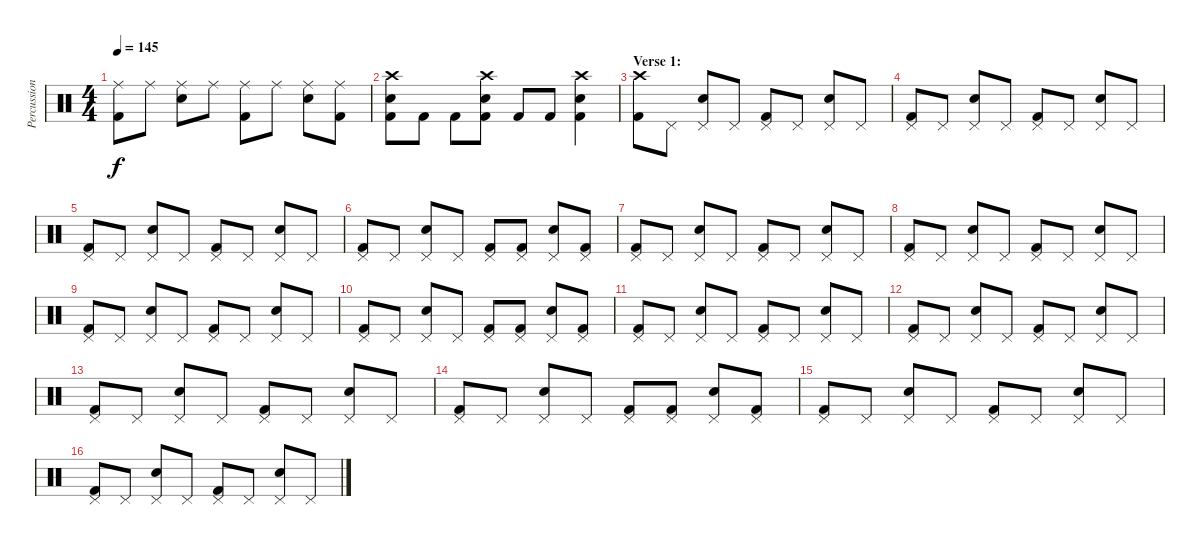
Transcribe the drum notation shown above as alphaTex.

\track ("Percussion" "Percussion") {instrument percussion}
\staff {score}
\articulation defaults
\ts (4 4)
\tempo 145
\clef neutral
\ks c
("Ride (middle)" "Kick (hit) 2").8{dy f} "Ride (middle)".8 ("Ride (middle)" "Electric Snare (hit)").8 "Ride (middle)".8 ("Ride (middle)" "Kick (hit) 2").8 "Ride (middle)".8 ("Ride (middle)" "Electric Snare (hit)").8 ("Ride (middle)" "Kick (hit) 2").8 |
("Crash high (hit)" "Electric Snare (hit)" "Kick (hit) 2").8 "Kick (hit) 2".8 "Kick (hit) 2".8 ("Crash high (hit)" "Electric Snare (hit)" "Kick (hit) 2").8 "Kick (hit) 2".8 "Kick (hit) 2".8 ("Crash high (hit)" "Electric Snare (hit)" "Kick (hit) 2").4 |
\section ("" "Verse 1:")
("Crash high (hit)" "Kick (hit) 2").8 "Pedal Hi-Hat (hit)".8 ("Pedal Hi-Hat (hit)" "Electric Snare (hit)").8 "Pedal Hi-Hat (hit)".8 ("Pedal Hi-Hat (hit)" "Kick (hit) 2").8 "Pedal Hi-Hat (hit)".8 ("Pedal Hi-Hat (hit)" "Electric Snare (hit)").8 "Pedal Hi-Hat (hit)".8 |
("Pedal Hi-Hat (hit)" "Kick (hit) 2").8 "Pedal Hi-Hat (hit)".8 ("Pedal Hi-Hat (hit)" "Electric Snare (hit)").8 "Pedal Hi-Hat (hit)".8 ("Pedal Hi-Hat (hit)" "Kick (hit) 2").8 "Pedal Hi-Hat (hit)".8 ("Pedal Hi-Hat (hit)" "Electric Snare (hit)").8 "Pedal Hi-Hat (hit)".8 |
("Pedal Hi-Hat (hit)" "Kick (hit) 2").8 "Pedal Hi-Hat (hit)".8 ("Pedal Hi-Hat (hit)" "Electric Snare (hit)").8 "Pedal Hi-Hat (hit)".8 ("Pedal Hi-Hat (hit)" "Kick (hit) 2").8 "Pedal Hi-Hat (hit)".8 ("Pedal Hi-Hat (hit)" "Electric Snare (hit)").8 "Pedal Hi-Hat (hit)".8 |
("Pedal Hi-Hat (hit)" "Kick (hit) 2").8 "Pedal Hi-Hat (hit)".8 ("Pedal Hi-Hat (hit)" "Electric Snare (hit)").8 "Pedal Hi-Hat (hit)".8 ("Pedal Hi-Hat (hit)" "Kick (hit) 2").8 ("Pedal Hi-Hat (hit)" "Kick (hit) 2").8 ("Pedal Hi-Hat (hit)" "Electric Snare (hit)").8 ("Pedal Hi-Hat (hit)" "Kick (hit) 2").8 |
("Pedal Hi-Hat (hit)" "Kick (hit) 2").8 "Pedal Hi-Hat (hit)".8 ("Pedal Hi-Hat (hit)" "Electric Snare (hit)").8 "Pedal Hi-Hat (hit)".8 ("Pedal Hi-Hat (hit)" "Kick (hit) 2").8 "Pedal Hi-Hat (hit)".8 ("Pedal Hi-Hat (hit)" "Electric Snare (hit)").8 "Pedal Hi-Hat (hit)".8 |
("Pedal Hi-Hat (hit)" "Kick (hit) 2").8 "Pedal Hi-Hat (hit)".8 ("Pedal Hi-Hat (hit)" "Electric Snare (hit)").8 "Pedal Hi-Hat (hit)".8 ("Pedal Hi-Hat (hit)" "Kick (hit) 2").8 "Pedal Hi-Hat (hit)".8 ("Pedal Hi-Hat (hit)" "Electric Snare (hit)").8 "Pedal Hi-Hat (hit)".8 |
("Pedal Hi-Hat (hit)" "Kick (hit) 2").8 "Pedal Hi-Hat (hit)".8 ("Pedal Hi-Hat (hit)" "Electric Snare (hit)").8 "Pedal Hi-Hat (hit)".8 ("Pedal Hi-Hat (hit)" "Kick (hit) 2").8 "Pedal Hi-Hat (hit)".8 ("Pedal Hi-Hat (hit)" "Electric Snare (hit)").8 "Pedal Hi-Hat (hit)".8 |
("Pedal Hi-Hat (hit)" "Kick (hit) 2").8 "Pedal Hi-Hat (hit)".8 ("Pedal Hi-Hat (hit)" "Electric Snare (hit)").8 "Pedal Hi-Hat (hit)".8 ("Pedal Hi-Hat (hit)" "Kick (hit) 2").8 ("Pedal Hi-Hat (hit)" "Kick (hit) 2").8 ("Pedal Hi-Hat (hit)" "Electric Snare (hit)").8 ("Pedal Hi-Hat (hit)" "Kick (hit) 2").8 |
("Pedal Hi-Hat (hit)" "Kick (hit) 2").8 "Pedal Hi-Hat (hit)".8 ("Pedal Hi-Hat (hit)" "Electric Snare (hit)").8 "Pedal Hi-Hat (hit)".8 ("Pedal Hi-Hat (hit)" "Kick (hit) 2").8 "Pedal Hi-Hat (hit)".8 ("Pedal Hi-Hat (hit)" "Electric Snare (hit)").8 "Pedal Hi-Hat (hit)".8 |
("Pedal Hi-Hat (hit)" "Kick (hit) 2").8 "Pedal Hi-Hat (hit)".8 ("Pedal Hi-Hat (hit)" "Electric Snare (hit)").8 "Pedal Hi-Hat (hit)".8 ("Pedal Hi-Hat (hit)" "Kick (hit) 2").8 "Pedal Hi-Hat (hit)".8 ("Pedal Hi-Hat (hit)" "Electric Snare (hit)").8 "Pedal Hi-Hat (hit)".8 |
("Pedal Hi-Hat (hit)" "Kick (hit) 2").8 "Pedal Hi-Hat (hit)".8 ("Pedal Hi-Hat (hit)" "Electric Snare (hit)").8 "Pedal Hi-Hat (hit)".8 ("Pedal Hi-Hat (hit)" "Kick (hit) 2").8 "Pedal Hi-Hat (hit)".8 ("Pedal Hi-Hat (hit)" "Electric Snare (hit)").8 "Pedal Hi-Hat (hit)".8 |
("Pedal Hi-Hat (hit)" "Kick (hit) 2").8 "Pedal Hi-Hat (hit)".8 ("Pedal Hi-Hat (hit)" "Electric Snare (hit)").8 "Pedal Hi-Hat (hit)".8 ("Pedal Hi-Hat (hit)" "Kick (hit) 2").8 ("Pedal Hi-Hat (hit)" "Kick (hit) 2").8 ("Pedal Hi-Hat (hit)" "Electric Snare (hit)").8 ("Pedal Hi-Hat (hit)" "Kick (hit) 2").8 |
("Pedal Hi-Hat (hit)" "Kick (hit) 2").8 "Pedal Hi-Hat (hit)".8 ("Pedal Hi-Hat (hit)" "Electric Snare (hit)").8 "Pedal Hi-Hat (hit)".8 ("Pedal Hi-Hat (hit)" "Kick (hit) 2").8 "Pedal Hi-Hat (hit)".8 ("Pedal Hi-Hat (hit)" "Electric Snare (hit)").8 "Pedal Hi-Hat (hit)".8 |
("Pedal Hi-Hat (hit)" "Kick (hit) 2").8 "Pedal Hi-Hat (hit)".8 ("Pedal Hi-Hat (hit)" "Electric Snare (hit)").8 "Pedal Hi-Hat (hit)".8 ("Pedal Hi-Hat (hit)" "Kick (hit) 2").8 "Pedal Hi-Hat (hit)".8 ("Pedal Hi-Hat (hit)" "Electric Snare (hit)").8 "Pedal Hi-Hat (hit)".8
